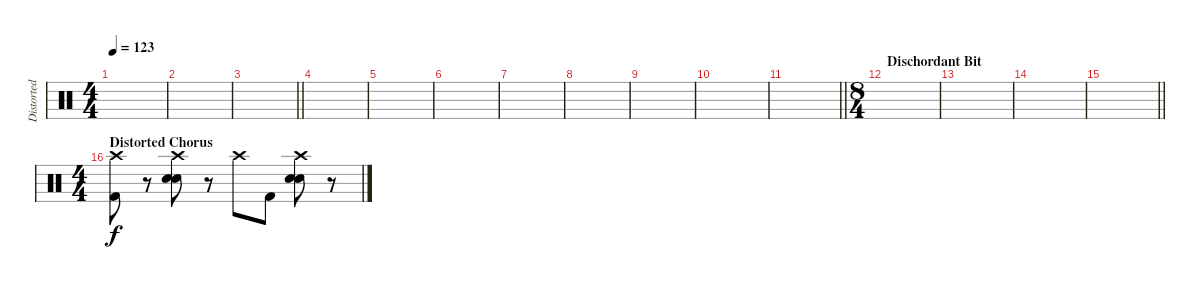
\track ("Distorted Drums" "Distorted ") {instrument percussion}
\staff {score}
\articulation defaults
\ts (4 4)
\tempo 123
\clef neutral
\ks c
|
|
\barLineRight lightlight
|
|
|
|
|
|
|
|
\barLineRight lightlight
|
\ts (8 4)
\section ("" "Dischordant Bit")
|
|
|
\barLineRight lightlight
|
\ts (4 4)
\section ("" "Distorted Chorus")
("Crash high (hit)" "Kick (hit) 2").8 r.8 ("Crash high (hit)" "Hand Clap (hit)" "Snare (hit) 2").8 r.8 "Crash high (hit)".8 "Kick (hit) 2".8 ("Crash high (hit)" "Hand Clap (hit)" "Snare (hit) 2").8 r.8
